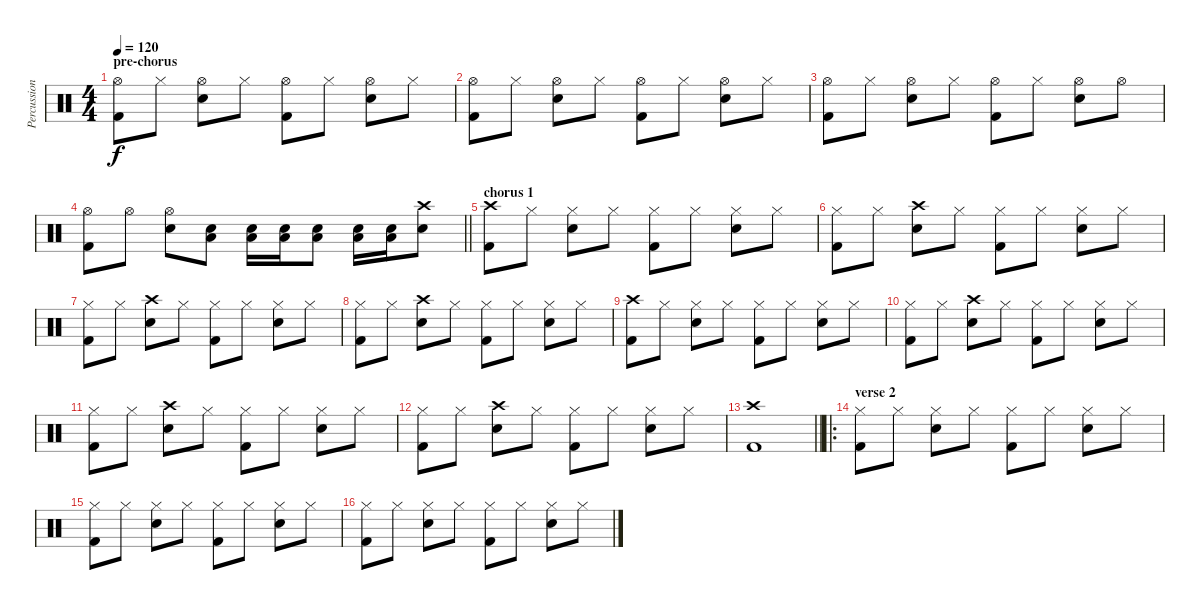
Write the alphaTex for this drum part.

\track ("Percussion" "Percussion") {instrument percussion}
\staff {score}
\articulation defaults
\ts (4 4)
\section ("" "pre-chorus")
\tempo 120
\clef neutral
\ks c
("Hi-Hat (open)" "Kick (hit) 2").8{dy f} "Hi-Hat (closed)".8 ("Hi-Hat (open)" "Snare (hit) 2").8 "Hi-Hat (closed)".8 ("Hi-Hat (open)" "Kick (hit) 2").8 "Hi-Hat (closed)".8 ("Hi-Hat (open)" "Snare (hit) 2").8 "Hi-Hat (closed)".8 |
("Hi-Hat (open)" "Kick (hit) 2").8 "Hi-Hat (closed)".8 ("Hi-Hat (open)" "Snare (hit) 2").8 "Hi-Hat (closed)".8 ("Hi-Hat (open)" "Kick (hit) 2").8 "Hi-Hat (closed)".8 ("Hi-Hat (open)" "Snare (hit) 2").8 "Hi-Hat (closed)".8 |
("Hi-Hat (open)" "Kick (hit) 2").8 "Hi-Hat (closed)".8 ("Hi-Hat (open)" "Snare (hit) 2").8 "Hi-Hat (closed)".8 ("Hi-Hat (open)" "Kick (hit) 2").8 "Hi-Hat (closed)".8 ("Hi-Hat (open)" "Snare (hit) 2").8 "Hi-Hat (open)".8 |
\barLineRight lightlight
("Hi-Hat (open)" "Kick (hit) 2").8 "Hi-Hat (open)".8 ("Hi-Hat (open)" "Snare (hit) 2").8 ("Low Tom (hit)" "Snare (hit) 2").8 ("Low Tom (hit)" "Snare (hit) 2").16 ("Low Tom (hit)" "Snare (hit) 2").16 ("Low Tom (hit)" "Snare (hit) 2").8 ("Low Tom (hit)" "Snare (hit) 2").16 ("Low Tom (hit)" "Snare (hit) 2").16 ("Crash high (hit)" "Snare (hit) 2").8 |
\section ("" "chorus 1")
("Crash high (hit)" "Kick (hit) 2").8 "Hi-Hat (closed)".8 ("Hi-Hat (closed)" "Snare (hit) 2").8 "Hi-Hat (closed)".8 ("Hi-Hat (closed)" "Kick (hit) 2").8 "Hi-Hat (closed)".8 ("Hi-Hat (closed)" "Snare (hit) 2").8 "Hi-Hat (closed)".8 |
("Hi-Hat (closed)" "Kick (hit) 2").8 "Hi-Hat (closed)".8 ("Crash high (hit)" "Snare (hit) 2").8 "Hi-Hat (closed)".8 ("Hi-Hat (closed)" "Kick (hit) 2").8 "Hi-Hat (closed)".8 ("Hi-Hat (closed)" "Snare (hit) 2").8 "Hi-Hat (closed)".8 |
("Hi-Hat (closed)" "Kick (hit) 2").8 "Hi-Hat (closed)".8 ("Crash high (hit)" "Snare (hit) 2").8 "Hi-Hat (closed)".8 ("Hi-Hat (closed)" "Kick (hit) 2").8 "Hi-Hat (closed)".8 ("Hi-Hat (closed)" "Snare (hit) 2").8 "Hi-Hat (closed)".8 |
("Hi-Hat (closed)" "Kick (hit) 2").8 "Hi-Hat (closed)".8 ("Crash high (hit)" "Snare (hit) 2").8 "Hi-Hat (closed)".8 ("Hi-Hat (closed)" "Kick (hit) 2").8 "Hi-Hat (closed)".8 ("Hi-Hat (closed)" "Snare (hit) 2").8 "Hi-Hat (closed)".8 |
("Crash high (hit)" "Kick (hit) 2").8 "Hi-Hat (closed)".8 ("Hi-Hat (closed)" "Snare (hit) 2").8 "Hi-Hat (closed)".8 ("Hi-Hat (closed)" "Kick (hit) 2").8 "Hi-Hat (closed)".8 ("Hi-Hat (closed)" "Snare (hit) 2").8 "Hi-Hat (closed)".8 |
("Hi-Hat (closed)" "Kick (hit) 2").8 "Hi-Hat (closed)".8 ("Crash high (hit)" "Snare (hit) 2").8 "Hi-Hat (closed)".8 ("Hi-Hat (closed)" "Kick (hit) 2").8 "Hi-Hat (closed)".8 ("Hi-Hat (closed)" "Snare (hit) 2").8 "Hi-Hat (closed)".8 |
("Hi-Hat (closed)" "Kick (hit) 2").8 "Hi-Hat (closed)".8 ("Crash high (hit)" "Snare (hit) 2").8 "Hi-Hat (closed)".8 ("Hi-Hat (closed)" "Kick (hit) 2").8 "Hi-Hat (closed)".8 ("Hi-Hat (closed)" "Snare (hit) 2").8 "Hi-Hat (closed)".8 |
("Hi-Hat (closed)" "Kick (hit) 2").8 "Hi-Hat (closed)".8 ("Crash high (hit)" "Snare (hit) 2").8 "Hi-Hat (closed)".8 ("Hi-Hat (closed)" "Kick (hit) 2").8 "Hi-Hat (closed)".8 ("Hi-Hat (closed)" "Snare (hit) 2").8 "Hi-Hat (closed)".8 |
\barLineRight lightlight
("Crash high (hit)" "Kick (hit) 2").1 |
\ro
\section ("" "verse 2")
("Hi-Hat (closed)" "Kick (hit) 2").8 "Hi-Hat (closed)".8 ("Hi-Hat (closed)" "Snare (hit) 2").8 "Hi-Hat (closed)".8 ("Hi-Hat (closed)" "Kick (hit) 2").8 "Hi-Hat (closed)".8 ("Hi-Hat (closed)" "Snare (hit) 2").8 "Hi-Hat (closed)".8 |
("Hi-Hat (closed)" "Kick (hit) 2").8 "Hi-Hat (closed)".8 ("Hi-Hat (closed)" "Snare (hit) 2").8 "Hi-Hat (closed)".8 ("Hi-Hat (closed)" "Kick (hit) 2").8 "Hi-Hat (closed)".8 ("Hi-Hat (closed)" "Snare (hit) 2").8 "Hi-Hat (closed)".8 |
("Hi-Hat (closed)" "Kick (hit) 2").8 "Hi-Hat (closed)".8 ("Hi-Hat (closed)" "Snare (hit) 2").8 "Hi-Hat (closed)".8 ("Hi-Hat (closed)" "Kick (hit) 2").8 "Hi-Hat (closed)".8 ("Hi-Hat (closed)" "Snare (hit) 2").8 "Hi-Hat (closed)".8
